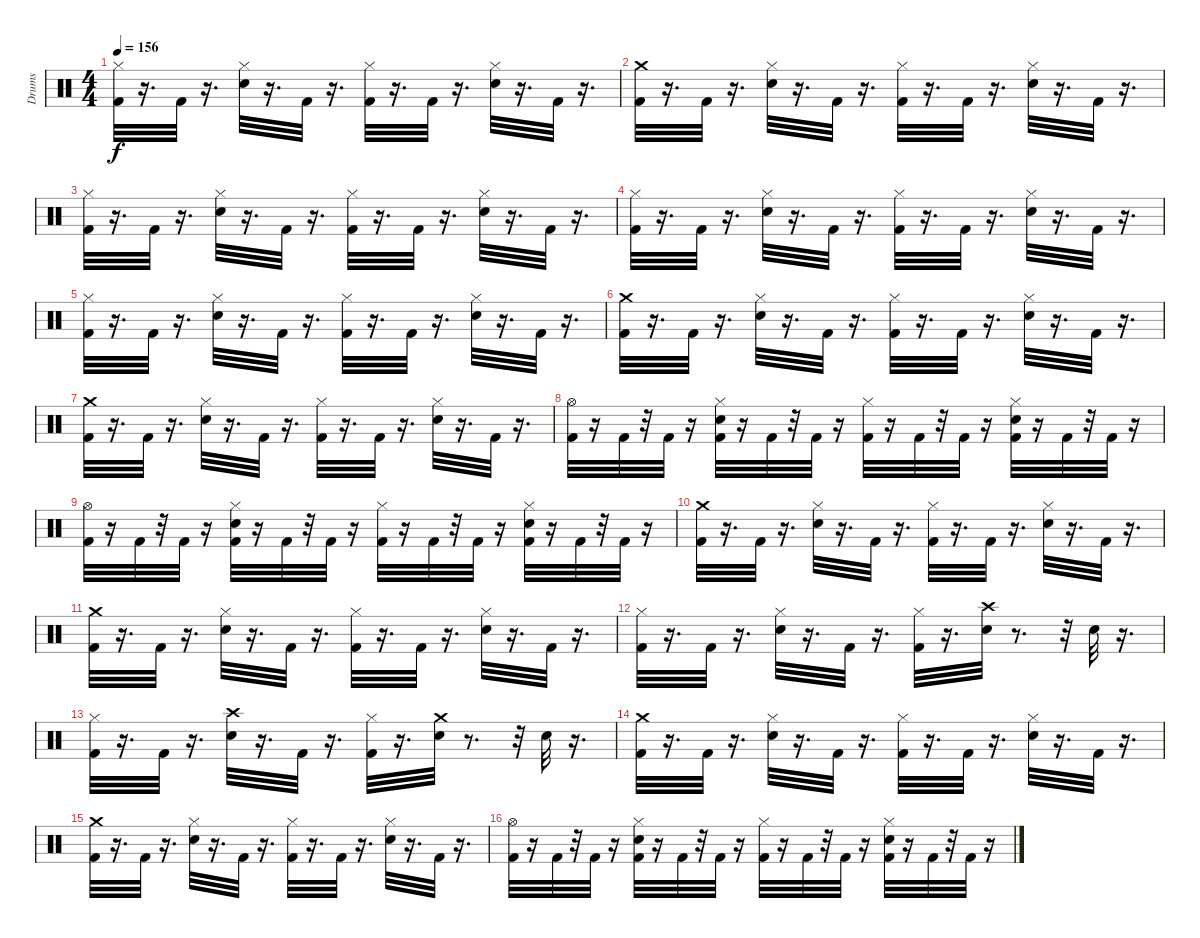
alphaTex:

\track ("Drums" "Drums") {instrument percussion}
\staff {score}
\articulation defaults
\ts (4 4)
\tempo 156
\clef neutral
\ks c
("Hi-Hat (closed)" "Kick (hit) 2").32{dy f} r.16{d} "Kick (hit) 2".32 r.16{d} ("Snare (hit) 2" "Hi-Hat (closed)").32 r.16{d} "Kick (hit) 2".32 r.16{d} ("Kick (hit) 2" "Hi-Hat (closed)").32 r.16{d} "Kick (hit) 2".32 r.16{d} ("Hi-Hat (closed)" "Snare (hit) 2").32 r.16{d} "Kick (hit) 2".32 r.16{d} |
("Crash medium (hit)" "Kick (hit) 2").32 r.16{d} "Kick (hit) 2".32 r.16{d} ("Snare (hit) 2" "Hi-Hat (closed)").32 r.16{d} "Kick (hit) 2".32 r.16{d} ("Hi-Hat (closed)" "Kick (hit) 2").32 r.16{d} "Kick (hit) 2".32 r.16{d} ("Snare (hit) 2" "Hi-Hat (closed)").32 r.16{d} "Kick (hit) 2".32 r.16{d} |
("Kick (hit) 2" "Hi-Hat (closed)").32 r.16{d} "Kick (hit) 2".32 r.16{d} ("Hi-Hat (closed)" "Snare (hit) 2").32 r.16{d} "Kick (hit) 2".32 r.16{d} ("Hi-Hat (closed)" "Kick (hit) 2").32 r.16{d} "Kick (hit) 2".32 r.16{d} ("Snare (hit) 2" "Hi-Hat (closed)").32 r.16{d} "Kick (hit) 2".32 r.16{d} |
("Kick (hit) 2" "Hi-Hat (closed)").32 r.16{d} "Kick (hit) 2".32 r.16{d} ("Hi-Hat (closed)" "Snare (hit) 2").32 r.16{d} "Kick (hit) 2".32 r.16{d} ("Kick (hit) 2" "Hi-Hat (closed)").32 r.16{d} "Kick (hit) 2".32 r.16{d} ("Hi-Hat (closed)" "Snare (hit) 2").32 r.16{d} "Kick (hit) 2".32 r.16{d} |
("Hi-Hat (closed)" "Kick (hit) 2").32 r.16{d} "Kick (hit) 2".32 r.16{d} ("Snare (hit) 2" "Hi-Hat (closed)").32 r.16{d} "Kick (hit) 2".32 r.16{d} ("Kick (hit) 2" "Hi-Hat (closed)").32 r.16{d} "Kick (hit) 2".32 r.16{d} ("Hi-Hat (closed)" "Snare (hit) 2").32 r.16{d} "Kick (hit) 2".32 r.16{d} |
("Crash medium (hit)" "Kick (hit) 2").32 r.16{d} "Kick (hit) 2".32 r.16{d} ("Snare (hit) 2" "Hi-Hat (closed)").32 r.16{d} "Kick (hit) 2".32 r.16{d} ("Hi-Hat (closed)" "Kick (hit) 2").32 r.16{d} "Kick (hit) 2".32 r.16{d} ("Snare (hit) 2" "Hi-Hat (closed)").32 r.16{d} "Kick (hit) 2".32 r.16{d} |
("Crash medium (hit)" "Kick (hit) 2").32 r.16{d} "Kick (hit) 2".32 r.16{d} ("Snare (hit) 2" "Hi-Hat (closed)").32 r.16{d} "Kick (hit) 2".32 r.16{d} ("Hi-Hat (closed)" "Kick (hit) 2").32 r.16{d} "Kick (hit) 2".32 r.16{d} ("Snare (hit) 2" "Hi-Hat (closed)").32 r.16{d} "Kick (hit) 2".32 r.16{d} |
("Hi-Hat (open)" "Kick (hit) 2").32 r.16 "Kick (hit) 2".32 r.32 "Kick (hit) 2".32 r.16 ("Snare (hit) 2" "Hi-Hat (closed)" "Kick (hit) 2").32 r.16 "Kick (hit) 2".32 r.32 "Kick (hit) 2".32 r.16 ("Hi-Hat (closed)" "Kick (hit) 2").32 r.16 "Kick (hit) 2".32 r.32 "Kick (hit) 2".32 r.16 ("Hi-Hat (closed)" "Snare (hit) 2" "Kick (hit) 2").32 r.16 "Kick (hit) 2".32 r.32 "Kick (hit) 2".32 r.16 |
("Hi-Hat (open)" "Kick (hit) 2").32 r.16 "Kick (hit) 2".32 r.32 "Kick (hit) 2".32 r.16 ("Snare (hit) 2" "Hi-Hat (closed)" "Kick (hit) 2").32 r.16 "Kick (hit) 2".32 r.32 "Kick (hit) 2".32 r.16 ("Hi-Hat (closed)" "Kick (hit) 2").32 r.16 "Kick (hit) 2".32 r.32 "Kick (hit) 2".32 r.16 ("Hi-Hat (closed)" "Snare (hit) 2" "Kick (hit) 2").32 r.16 "Kick (hit) 2".32 r.32 "Kick (hit) 2".32 r.16 |
("Crash medium (hit)" "Kick (hit) 2").32 r.16{d} "Kick (hit) 2".32 r.16{d} ("Snare (hit) 2" "Hi-Hat (closed)").32 r.16{d} "Kick (hit) 2".32 r.16{d} ("Hi-Hat (closed)" "Kick (hit) 2").32 r.16{d} "Kick (hit) 2".32 r.16{d} ("Snare (hit) 2" "Hi-Hat (closed)").32 r.16{d} "Kick (hit) 2".32 r.16{d} |
("Crash medium (hit)" "Kick (hit) 2").32 r.16{d} "Kick (hit) 2".32 r.16{d} ("Snare (hit) 2" "Hi-Hat (closed)").32 r.16{d} "Kick (hit) 2".32 r.16{d} ("Hi-Hat (closed)" "Kick (hit) 2").32 r.16{d} "Kick (hit) 2".32 r.16{d} ("Snare (hit) 2" "Hi-Hat (closed)").32 r.16{d} "Kick (hit) 2".32 r.16{d} |
("Hi-Hat (closed)" "Kick (hit) 2").32 r.16{d} "Kick (hit) 2".32 r.16{d} ("Snare (hit) 2" "Hi-Hat (closed)").32 r.16{d} "Kick (hit) 2".32 r.16{d} ("Hi-Hat (closed)" "Kick (hit) 2").32 r.16{d} ("Crash high (hit)" "Snare (hit) 2").32 r.8{d} r.32 "Snare (hit) 2".32 r.16{d} |
("Hi-Hat (closed)" "Kick (hit) 2").32 r.16{d} "Kick (hit) 2".32 r.16{d} ("Crash high (hit)" "Snare (hit) 2").32 r.16{d} "Kick (hit) 2".32 r.16{d} ("Hi-Hat (closed)" "Kick (hit) 2").32 r.16{d} ("Crash medium (hit)" "Snare (hit) 2").32 r.8{d} r.32 "Snare (hit) 2".32 r.16{d} |
("Crash medium (hit)" "Kick (hit) 2").32 r.16{d} "Kick (hit) 2".32 r.16{d} ("Snare (hit) 2" "Hi-Hat (closed)").32 r.16{d} "Kick (hit) 2".32 r.16{d} ("Hi-Hat (closed)" "Kick (hit) 2").32 r.16{d} "Kick (hit) 2".32 r.16{d} ("Snare (hit) 2" "Hi-Hat (closed)").32 r.16{d} "Kick (hit) 2".32 r.16{d} |
("Crash medium (hit)" "Kick (hit) 2").32 r.16{d} "Kick (hit) 2".32 r.16{d} ("Snare (hit) 2" "Hi-Hat (closed)").32 r.16{d} "Kick (hit) 2".32 r.16{d} ("Hi-Hat (closed)" "Kick (hit) 2").32 r.16{d} "Kick (hit) 2".32 r.16{d} ("Snare (hit) 2" "Hi-Hat (closed)").32 r.16{d} "Kick (hit) 2".32 r.16{d} |
("Hi-Hat (open)" "Kick (hit) 2").32 r.16 "Kick (hit) 2".32 r.32 "Kick (hit) 2".32 r.16 ("Snare (hit) 2" "Hi-Hat (closed)" "Kick (hit) 2").32 r.16 "Kick (hit) 2".32 r.32 "Kick (hit) 2".32 r.16 ("Hi-Hat (closed)" "Kick (hit) 2").32 r.16 "Kick (hit) 2".32 r.32 "Kick (hit) 2".32 r.16 ("Hi-Hat (closed)" "Snare (hit) 2" "Kick (hit) 2").32 r.16 "Kick (hit) 2".32 r.32 "Kick (hit) 2".32 r.16
